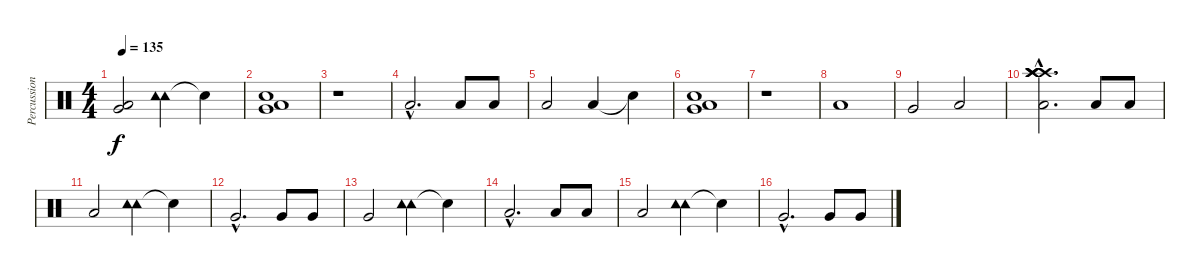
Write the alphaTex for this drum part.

\track ("Percussion" "Percussion") {instrument percussion}
\staff {score}
\articulation defaults
\ts (4 4)
\tempo 135
\clef neutral
\ks c
("Very Low Tom (hit)" "Low Tom (hit)").2{dy f} ("Tambourine (hit)" "Tambourine (hit)").4 "Snare (hit)"{t}.4 |
("Very Low Tom (hit)" "Electric Snare (hit)" "Low Floor Tom (hit)").1 |
r.1 |
"Low Tom (hit)"{hac}.2{d} "Low Tom (hit)".8 "Low Tom (hit)".8 |
"Low Tom (hit)".2 "Low Floor Tom (hit)".4 "Snare (hit)"{t}.4 |
("Very Low Tom (hit)" "Electric Snare (hit)" "Low Floor Tom (hit)").1 |
r.1 |
"Low Tom (hit)".1 |
"Very Low Tom (hit)".2 "Low Floor Tom (hit)".2 |
("Crash high (hit)"{hac} "Crash high (hit)"{hac} "Crash high (hit)"{hac} "Crash high (hit)"{hac} "Low Tom (hit)"{hac}).2{d} "Low Tom (hit)".8 "Low Tom (hit)".8 |
"Low Tom (hit)".2 ("Tambourine (hit)" "Tambourine (hit)").4 "Snare (hit)"{t}.4 |
"Very Low Tom (hit)"{hac}.2{d} "Very Low Tom (hit)".8 "Very Low Tom (hit)".8 |
"Very Low Tom (hit)".2 ("Tambourine (hit)" "Tambourine (hit)").4 "Snare (hit)"{t}.4 |
"Low Tom (hit)"{hac}.2{d} "Low Tom (hit)".8 "Low Tom (hit)".8 |
"Low Tom (hit)".2 ("Tambourine (hit)" "Tambourine (hit)").4 "Snare (hit)"{t}.4 |
"Very Low Tom (hit)"{hac}.2{d} "Very Low Tom (hit)".8 "Very Low Tom (hit)".8
